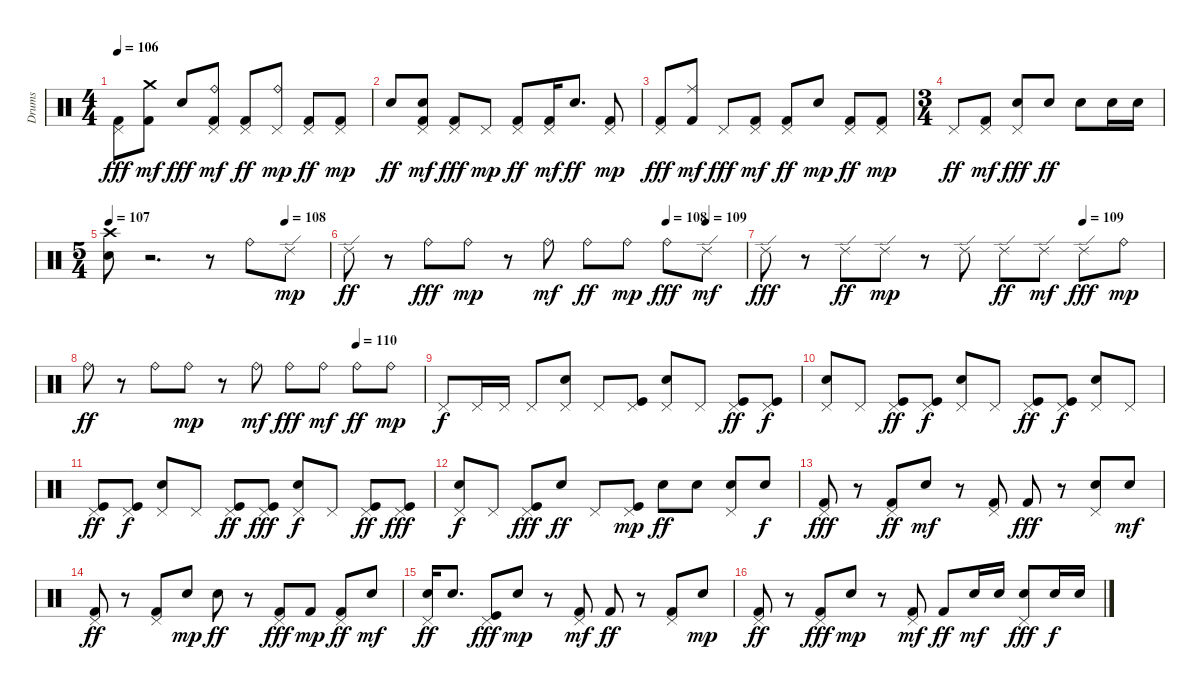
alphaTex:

\track ("Drums" "Drums") {instrument percussion}
\staff {score}
\articulation defaults
\ts (4 4)
\tempo 106
\clef neutral
\ks c
("Pedal Hi-Hat (hit)" "Kick (hit) 2").8{dy fff} ("Crash medium (hit)" "Kick (hit) 2").8{dy mf} "Electric Snare (hit)".8{dy fff} ("Ride (bell)" "Pedal Hi-Hat (hit)" "Kick (hit) 2").8{dy mf} ("Pedal Hi-Hat (hit)" "Kick (hit) 2").8{dy ff} ("Pedal Hi-Hat (hit)" "Ride (bell)").8{dy mp} ("Pedal Hi-Hat (hit)" "Kick (hit) 2").8{dy ff} ("Pedal Hi-Hat (hit)" "Kick (hit) 2").8{dy mp} |
"Electric Snare (hit)".8{dy ff} ("Electric Snare (hit)" "Pedal Hi-Hat (hit)" "Kick (hit) 2").8{dy mf} ("Pedal Hi-Hat (hit)" "Kick (hit) 2").8{dy fff} "Pedal Hi-Hat (hit)".8{dy mp} ("Pedal Hi-Hat (hit)" "Kick (hit) 2").8{dy ff} ("Pedal Hi-Hat (hit)" "Kick (hit) 2").16{dy mf} "Electric Snare (hit)".8{d dy ff} ("Pedal Hi-Hat (hit)" "Kick (hit) 2").8{dy mp} |
("Pedal Hi-Hat (hit)" "Kick (hit) 2").8{dy fff} ("Ride (middle)" "Kick (hit) 2").8{dy mf} "Pedal Hi-Hat (hit)".8{dy fff} ("Pedal Hi-Hat (hit)" "Kick (hit) 2").8{dy mf} ("Pedal Hi-Hat (hit)" "Kick (hit) 2").8{dy ff} "Electric Snare (hit)".8{dy mp} ("Pedal Hi-Hat (hit)" "Kick (hit) 2").8{dy ff} ("Pedal Hi-Hat (hit)" "Kick (hit) 2").8{dy mp} |
\ts (3 4)
"Pedal Hi-Hat (hit)".8{dy ff} ("Pedal Hi-Hat (hit)" "Kick (hit) 2").8{dy mf} ("Pedal Hi-Hat (hit)" "Electric Snare (hit)").8{dy fff} "Electric Snare (hit)".8{dy ff} "Electric Snare (hit)".8 "Electric Snare (hit)".16 "Electric Snare (hit)".16 |
\ts (5 4)
\tempo 107
\tempo (108 0.8)
("Electric Snare (hit)" "Crash high (hit)").8 r.2{d} r.8 "Ride (bell)".8 "Ride (edge) 2".8{dy mp} |
\tempo (108 0.8)
\tempo (109 0.9)
"Ride (edge) 2".8{dy ff} r.8 "Ride (bell)".8{dy fff} "Ride (bell)".8{dy mp} r.8 "Ride (bell)".8{dy mf} "Ride (bell)".8{dy ff} "Ride (bell)".8{dy mp} "Ride (bell)".8{dy fff} "Ride (edge) 2".8{dy mf} |
\tempo (109 0.8)
"Ride (edge) 2".8{dy fff} r.8 "Ride (edge) 2".8{dy ff} "Ride (edge) 2".8{dy mp} r.8 "Ride (edge) 2".8 "Ride (edge) 2".8{dy ff} "Ride (edge) 2".8{dy mf} "Ride (edge) 2".8{dy fff} "Ride (bell)".8{dy mp} |
\tempo (110 0.8)
"Ride (bell)".8{dy ff} r.8 "Ride (bell)".8 "Ride (bell)".8{dy mp} r.8 "Ride (bell)".8{dy mf} "Ride (bell)".8{dy fff} "Ride (bell)".8{dy mf} "Ride (bell)".8{dy ff} "Ride (bell)".8{dy mp} |
"Pedal Hi-Hat (hit)".8{dy f} "Pedal Hi-Hat (hit)".16 "Pedal Hi-Hat (hit)".16 "Pedal Hi-Hat (hit)".8 ("Electric Snare (hit)" "Pedal Hi-Hat (hit)").8 "Pedal Hi-Hat (hit)".8 ("Kick (hit)" "Pedal Hi-Hat (hit)").8 ("Electric Snare (hit)" "Pedal Hi-Hat (hit)").8 "Pedal Hi-Hat (hit)".8 ("Kick (hit)" "Pedal Hi-Hat (hit)").8{dy ff} ("Kick (hit)" "Pedal Hi-Hat (hit)").8{dy f} |
("Electric Snare (hit)" "Pedal Hi-Hat (hit)").8 "Pedal Hi-Hat (hit)".8 ("Kick (hit)" "Pedal Hi-Hat (hit)").8{dy ff} ("Kick (hit)" "Pedal Hi-Hat (hit)").8{dy f} ("Electric Snare (hit)" "Pedal Hi-Hat (hit)").8 "Pedal Hi-Hat (hit)".8 ("Kick (hit)" "Pedal Hi-Hat (hit)").8{dy ff} ("Kick (hit)" "Pedal Hi-Hat (hit)").8{dy f} ("Electric Snare (hit)" "Pedal Hi-Hat (hit)").8 "Pedal Hi-Hat (hit)".8 |
("Kick (hit)" "Pedal Hi-Hat (hit)").8{dy ff} ("Kick (hit)" "Pedal Hi-Hat (hit)").8{dy f} ("Electric Snare (hit)" "Pedal Hi-Hat (hit)").8 "Pedal Hi-Hat (hit)".8 ("Kick (hit)" "Pedal Hi-Hat (hit)").8{dy ff} ("Kick (hit)" "Pedal Hi-Hat (hit)").8{dy fff} ("Electric Snare (hit)" "Pedal Hi-Hat (hit)").8{dy f} "Pedal Hi-Hat (hit)".8 ("Kick (hit)" "Pedal Hi-Hat (hit)").8{dy ff} ("Kick (hit)" "Pedal Hi-Hat (hit)").8{dy fff} |
("Electric Snare (hit)" "Pedal Hi-Hat (hit)").8{dy f} "Pedal Hi-Hat (hit)".8 ("Pedal Hi-Hat (hit)" "Kick (hit)").8{dy fff} "Electric Snare (hit)".8{dy ff} "Pedal Hi-Hat (hit)".8 ("Pedal Hi-Hat (hit)" "Kick (hit)").8{dy mp} "Electric Snare (hit)".8{dy ff} "Electric Snare (hit)".8 ("Pedal Hi-Hat (hit)" "Electric Snare (hit)").8 "Electric Snare (hit)".8{dy f} |
("Kick (hit) 2" "Pedal Hi-Hat (hit)").8{dy fff} r.8 ("Kick (hit) 2" "Pedal Hi-Hat (hit)").8{dy ff} "Electric Snare (hit)".8{dy mf} r.8 ("Kick (hit) 2" "Pedal Hi-Hat (hit)").8 "Kick (hit) 2".8{dy fff} r.8 ("Electric Snare (hit)" "Pedal Hi-Hat (hit)").8 "Electric Snare (hit)".8{dy mf} |
("Pedal Hi-Hat (hit)" "Kick (hit) 2").8{dy ff} r.8 ("Pedal Hi-Hat (hit)" "Kick (hit) 2").8 "Electric Snare (hit)".8{dy mp} "Electric Snare (hit)".8{dy ff} r.8 ("Pedal Hi-Hat (hit)" "Kick (hit) 2").8{dy fff} "Kick (hit) 2".8{dy mp} ("Pedal Hi-Hat (hit)" "Kick (hit) 2").8{dy ff} "Electric Snare (hit)".8{dy mf} |
("Electric Snare (hit)" "Pedal Hi-Hat (hit)").16{dy ff} "Electric Snare (hit)".8{d} ("Pedal Hi-Hat (hit)" "Kick (hit)").8{dy fff} "Electric Snare (hit)".8{dy mp} r.8 ("Pedal Hi-Hat (hit)" "Kick (hit) 2").8{dy mf} "Kick (hit) 2".8{dy ff} r.8 ("Pedal Hi-Hat (hit)" "Kick (hit) 2").8 "Electric Snare (hit)".8{dy mp} |
("Pedal Hi-Hat (hit)" "Kick (hit) 2").8{dy ff} r.8 ("Pedal Hi-Hat (hit)" "Kick (hit) 2").8{dy fff} "Electric Snare (hit)".8{dy mp} r.8 ("Pedal Hi-Hat (hit)" "Kick (hit) 2").8{dy mf} "Kick (hit) 2".8{dy ff} "Electric Snare (hit)".16{dy mf} "Electric Snare (hit)".16 ("Pedal Hi-Hat (hit)" "Electric Snare (hit)").8{dy fff} "Electric Snare (hit)".16{dy f} "Electric Snare (hit)".16
